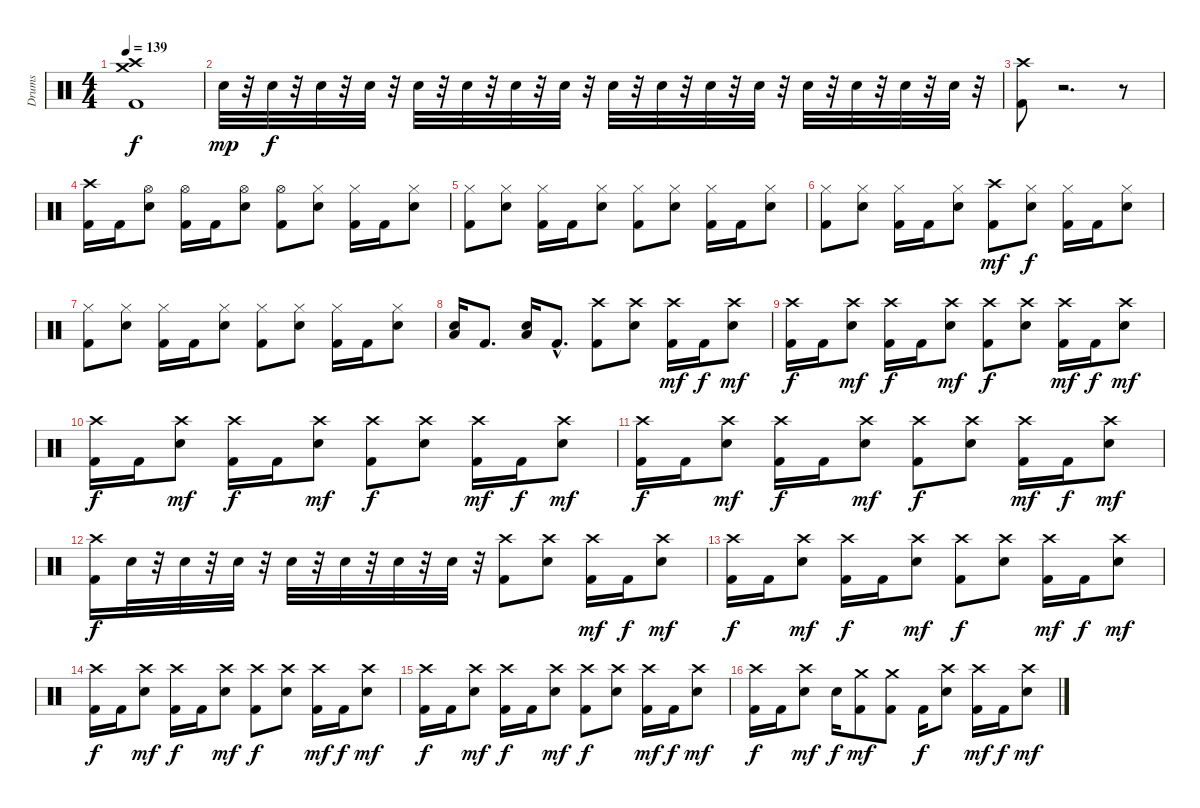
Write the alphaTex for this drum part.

\track ("Drums" "Drums") {instrument percussion}
\staff {score}
\articulation defaults
\ts (4 4)
\tempo 139
\clef neutral
\ks c
("Crash high (hit)" "Crash medium (hit)" "Kick (hit) 2").1{dy f} |
"Electric Snare (hit)".32{dy mp} r.32 "Electric Snare (hit)".32{dy f} r.32 "Electric Snare (hit)".32{volume 8} r.32 "Electric Snare (hit)".32 r.32 "Electric Snare (hit)".32{volume 9} r.32 "Electric Snare (hit)".32 r.32 "Electric Snare (hit)".32{volume 9} r.32 "Electric Snare (hit)".32 r.32 "Electric Snare (hit)".32{volume 10} r.32 "Electric Snare (hit)".32 r.32 "Electric Snare (hit)".32{volume 11} r.32 "Electric Snare (hit)".32 r.32 "Electric Snare (hit)".32{volume 11} r.32 "Electric Snare (hit)".32 r.32 "Electric Snare (hit)".32{volume 12} r.32 "Electric Snare (hit)".32 r.32 |
("Crash high (hit)" "Kick (hit) 2").8 r.2{d} r.8 |
("Crash high (hit)" "Kick (hit) 2").16 "Kick (hit) 2".16 ("Hi-Hat (open)" "Electric Snare (hit)").8 ("Hi-Hat (open)" "Kick (hit) 2").16 "Kick (hit) 2".16 ("Hi-Hat (open)" "Electric Snare (hit)").8 ("Kick (hit) 2" "Hi-Hat (open)").8 ("Hi-Hat (closed)" "Electric Snare (hit)").8 ("Hi-Hat (closed)" "Kick (hit) 2").16 "Kick (hit) 2".16 ("Hi-Hat (closed)" "Electric Snare (hit)").8 |
("Kick (hit) 2" "Hi-Hat (closed)").8 ("Hi-Hat (closed)" "Electric Snare (hit)").8 ("Hi-Hat (closed)" "Kick (hit) 2").16 "Kick (hit) 2".16 ("Hi-Hat (closed)" "Electric Snare (hit)").8 ("Kick (hit) 2" "Hi-Hat (closed)").8 ("Hi-Hat (closed)" "Electric Snare (hit)").8 ("Hi-Hat (closed)" "Kick (hit) 2").16 "Kick (hit) 2".16 ("Hi-Hat (closed)" "Electric Snare (hit)").8 |
("Kick (hit) 2" "Hi-Hat (closed)").8 ("Hi-Hat (closed)" "Electric Snare (hit)").8 ("Hi-Hat (closed)" "Kick (hit) 2").16 "Kick (hit) 2".16 ("Hi-Hat (closed)" "Electric Snare (hit)").8 ("Crash high (hit)" "Kick (hit) 2").8{dy mf} ("Hi-Hat (closed)" "Electric Snare (hit)").8{dy f} ("Hi-Hat (closed)" "Kick (hit) 2").16 "Kick (hit) 2".16 ("Hi-Hat (closed)" "Electric Snare (hit)").8 |
("Kick (hit) 2" "Hi-Hat (closed)").8 ("Hi-Hat (closed)" "Electric Snare (hit)").8 ("Hi-Hat (closed)" "Kick (hit) 2").16 "Kick (hit) 2".16 ("Hi-Hat (closed)" "Electric Snare (hit)").8 ("Kick (hit) 2" "Hi-Hat (closed)").8 ("Hi-Hat (closed)" "Electric Snare (hit)").8 ("Hi-Hat (closed)" "Kick (hit) 2").16 "Kick (hit) 2".16 ("Hi-Hat (closed)" "Electric Snare (hit)").8 |
("Electric Snare (hit)" "Low Floor Tom (hit)").16 "Kick (hit) 2".8{d} ("Electric Snare (hit)" "Low Floor Tom (hit)").16 "Kick (hit) 2"{hac}.8{d} ("Crash high (hit)" "Kick (hit) 2").8 ("Electric Snare (hit)" "Crash high (hit)").8 ("Kick (hit) 2" "Crash high (hit)").16{dy mf} "Kick (hit) 2".16{dy f} ("Electric Snare (hit)" "Crash high (hit)").8{dy mf} |
("Kick (hit) 2" "Crash high (hit)").16{dy f} "Kick (hit) 2".16 ("Electric Snare (hit)" "Crash high (hit)").8{dy mf} ("Kick (hit) 2" "Crash high (hit)").16{dy f} "Kick (hit) 2".16 ("Electric Snare (hit)" "Crash high (hit)").8{dy mf} ("Crash high (hit)" "Kick (hit) 2").8{dy f} ("Electric Snare (hit)" "Crash high (hit)").8 ("Kick (hit) 2" "Crash high (hit)").16{dy mf} "Kick (hit) 2".16{dy f} ("Electric Snare (hit)" "Crash high (hit)").8{dy mf} |
("Kick (hit) 2" "Crash high (hit)").16{dy f} "Kick (hit) 2".16 ("Electric Snare (hit)" "Crash high (hit)").8{dy mf} ("Kick (hit) 2" "Crash high (hit)").16{dy f} "Kick (hit) 2".16 ("Electric Snare (hit)" "Crash high (hit)").8{dy mf} ("Crash high (hit)" "Kick (hit) 2").8{dy f} ("Electric Snare (hit)" "Crash high (hit)").8 ("Kick (hit) 2" "Crash high (hit)").16{dy mf} "Kick (hit) 2".16{dy f} ("Electric Snare (hit)" "Crash high (hit)").8{dy mf} |
("Kick (hit) 2" "Crash high (hit)").16{dy f} "Kick (hit) 2".16 ("Electric Snare (hit)" "Crash high (hit)").8{dy mf} ("Kick (hit) 2" "Crash high (hit)").16{dy f} "Kick (hit) 2".16 ("Electric Snare (hit)" "Crash high (hit)").8{dy mf} ("Crash high (hit)" "Kick (hit) 2").8{dy f} ("Electric Snare (hit)" "Crash high (hit)").8 ("Kick (hit) 2" "Crash high (hit)").16{dy mf} "Kick (hit) 2".16{dy f} ("Electric Snare (hit)" "Crash high (hit)").8{dy mf} |
("Kick (hit) 2" "Crash high (hit)").16{dy f} "Electric Snare (hit)".32 r.32 "Electric Snare (hit)".32 r.32 "Electric Snare (hit)".32 r.32 "Electric Snare (hit)".32 r.32 "Electric Snare (hit)".32 r.32 "Electric Snare (hit)".32 r.32 "Electric Snare (hit)".32 r.32 ("Crash high (hit)" "Kick (hit) 2").8 ("Electric Snare (hit)" "Crash high (hit)").8 ("Kick (hit) 2" "Crash high (hit)").16{dy mf} "Kick (hit) 2".16{dy f} ("Electric Snare (hit)" "Crash high (hit)").8{dy mf} |
("Kick (hit) 2" "Crash high (hit)").16{dy f} "Kick (hit) 2".16 ("Electric Snare (hit)" "Crash high (hit)").8{dy mf} ("Kick (hit) 2" "Crash high (hit)").16{dy f} "Kick (hit) 2".16 ("Electric Snare (hit)" "Crash high (hit)").8{dy mf} ("Crash high (hit)" "Kick (hit) 2").8{dy f} ("Electric Snare (hit)" "Crash high (hit)").8 ("Kick (hit) 2" "Crash high (hit)").16{dy mf} "Kick (hit) 2".16{dy f} ("Electric Snare (hit)" "Crash high (hit)").8{dy mf} |
("Kick (hit) 2" "Crash high (hit)").16{dy f} "Kick (hit) 2".16 ("Electric Snare (hit)" "Crash high (hit)").8{dy mf} ("Kick (hit) 2" "Crash high (hit)").16{dy f} "Kick (hit) 2".16 ("Electric Snare (hit)" "Crash high (hit)").8{dy mf} ("Crash high (hit)" "Kick (hit) 2").8{dy f} ("Electric Snare (hit)" "Crash high (hit)").8 ("Kick (hit) 2" "Crash high (hit)").16{dy mf} "Kick (hit) 2".16{dy f} ("Electric Snare (hit)" "Crash high (hit)").8{dy mf} |
("Kick (hit) 2" "Crash high (hit)").16{dy f} "Kick (hit) 2".16 ("Electric Snare (hit)" "Crash high (hit)").8{dy mf} ("Kick (hit) 2" "Crash high (hit)").16{dy f} "Kick (hit) 2".16 ("Electric Snare (hit)" "Crash high (hit)").8{dy mf} ("Crash high (hit)" "Kick (hit) 2").8{dy f} ("Electric Snare (hit)" "Crash high (hit)").8 ("Kick (hit) 2" "Crash high (hit)").16{dy mf} "Kick (hit) 2".16{dy f} ("Electric Snare (hit)" "Crash high (hit)").8{dy mf} |
("Kick (hit) 2" "Crash high (hit)").16{dy f} "Kick (hit) 2".16 ("Electric Snare (hit)" "Crash high (hit)").8{dy mf} "Electric Snare (hit)".16{dy f} ("Kick (hit) 2" "Crash medium (hit)").8{dy mf} ("Crash medium (hit)" "Kick (hit) 2").8 "Kick (hit) 2".16{dy f} ("Electric Snare (hit)" "Crash high (hit)").8 ("Kick (hit) 2" "Crash high (hit)").16{dy mf} "Kick (hit) 2".16{dy f} ("Electric Snare (hit)" "Crash high (hit)").8{dy mf}
